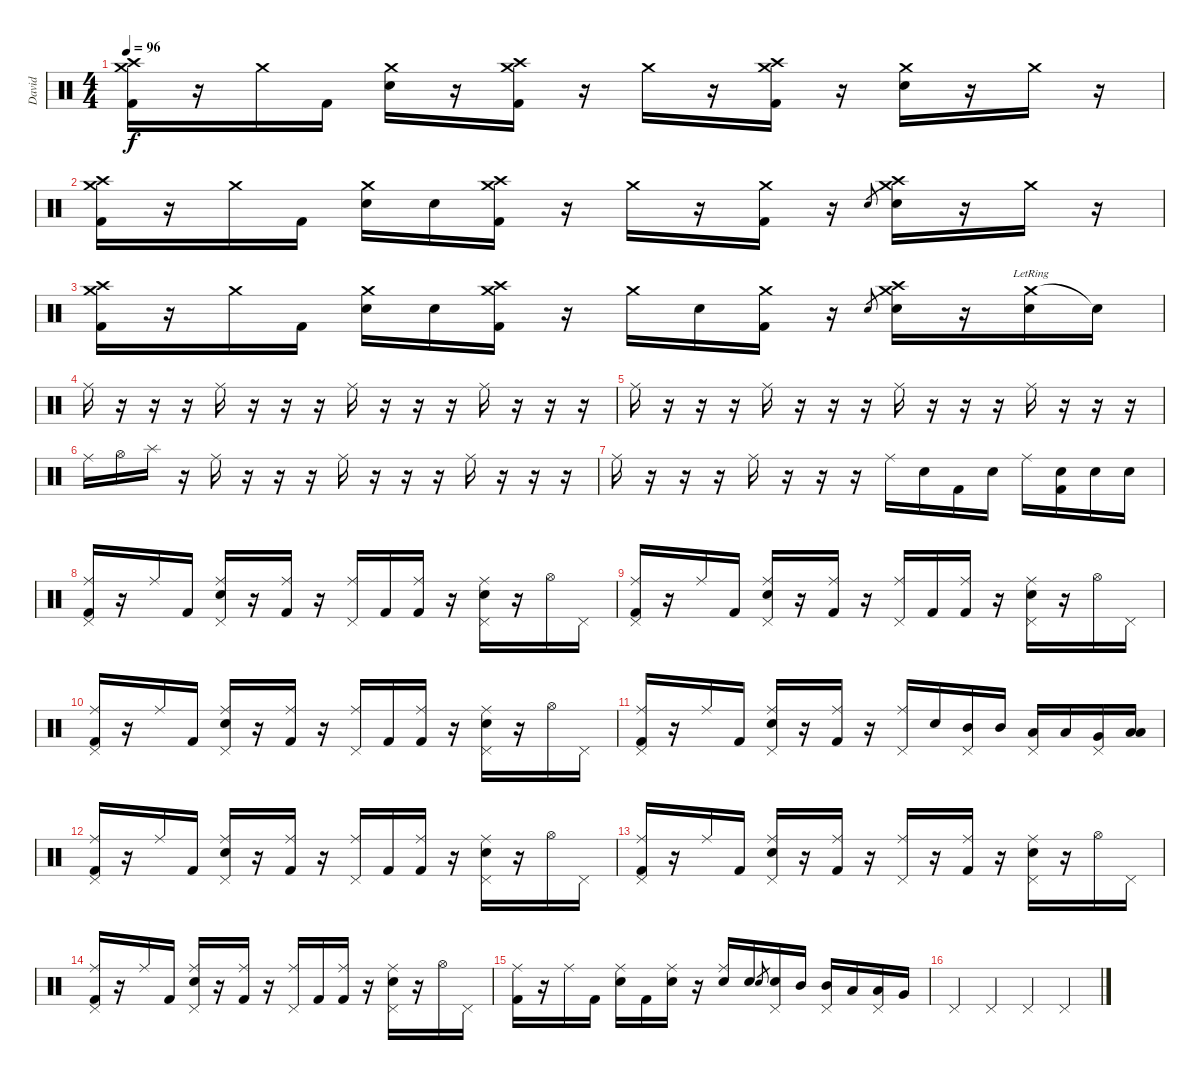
\track ("David" "David") {instrument percussion}
\staff {score}
\articulation defaults
\ts (4 4)
\tempo 96
\clef neutral
\ks c
("Crash high (hit)" "Crash medium (hit)" "Kick (hit) 2").16{dy f} r.16 "Crash medium (hit)".16 "Kick (hit) 2".16 ("Crash medium (hit)" "Electric Snare (hit)").16 r.16 ("Crash high (hit)" "Crash medium (hit)" "Kick (hit) 2").16 r.16 "Crash medium (hit)".16 r.16 ("Crash high (hit)" "Crash medium (hit)" "Kick (hit) 2").16 r.16 ("Crash medium (hit)" "Electric Snare (hit)").16 r.16 "Crash medium (hit)".16 r.16 |
("Crash high (hit)" "Crash medium (hit)" "Kick (hit) 2").16 r.16 "Crash medium (hit)".16 "Kick (hit) 2".16 ("Crash medium (hit)" "Electric Snare (hit)").16 "Electric Snare (hit)".16 ("Crash high (hit)" "Crash medium (hit)" "Kick (hit) 2").16 r.16 "Crash medium (hit)".16 r.16 ("Crash medium (hit)" "Kick (hit) 2").16 r.16 "Electric Snare (hit)".8{gr} ("Crash high (hit)" "Crash medium (hit)" "Electric Snare (hit)").16 r.16 "Crash medium (hit)".16 r.16 |
("Crash high (hit)" "Crash medium (hit)" "Kick (hit) 2").16 r.16 "Crash medium (hit)".16 "Kick (hit) 2".16 ("Crash medium (hit)" "Electric Snare (hit)").16 "Electric Snare (hit)".16 ("Crash high (hit)" "Crash medium (hit)" "Kick (hit) 2").16 r.16 "Crash medium (hit)".16 "Electric Snare (hit)".16 ("Crash medium (hit)" "Kick (hit) 2").16 r.16 "Electric Snare (hit)".8{gr} ("Crash high (hit)" "Crash medium (hit)" "Electric Snare (hit)").16 r.16 ("Crash medium (hit)"{lr} "Electric Snare (hit)").16 "Snare (hit)"{t}.16 |
"Ride (middle)".16 r.16 r.16 r.16 "Ride (middle)".16 r.16 r.16 r.16 "Ride (middle)".16 r.16 r.16 r.16 "Ride (middle)".16 r.16 r.16 r.16 |
"Ride (middle)".16 r.16 r.16 r.16 "Ride (middle)".16 r.16 r.16 r.16 "Ride (middle)".16 r.16 r.16 r.16 "Ride (middle)".16 r.16 r.16 r.16 |
"Ride (middle)".16 "Hi-Hat (open)".16 "Splash (hit)".16 r.16 "Ride (middle)".16 r.16 r.16 r.16 "Ride (middle)".16 r.16 r.16 r.16 "Ride (middle)".16 r.16 r.16 r.16 |
"Ride (middle)".16 r.16 r.16 r.16 "Ride (middle)".16 r.16 r.16 r.16 "Ride (middle)".16 "Electric Snare (hit)".16 "Kick (hit) 2".16 "Electric Snare (hit)".16 "Ride (middle)".16 ("Electric Snare (hit)" "Kick (hit) 2").16 "Electric Snare (hit)".16 "Electric Snare (hit)".16 |
("Ride (middle)" "Pedal Hi-Hat (hit)" "Kick (hit) 2").16 r.16 "Ride (middle)".16 "Kick (hit) 2".16 ("Ride (middle)" "Pedal Hi-Hat (hit)" "Electric Snare (hit)").16 r.16 ("Ride (middle)" "Kick (hit) 2").16 r.16 ("Ride (middle)" "Pedal Hi-Hat (hit)").16 "Kick (hit) 2".16 ("Ride (middle)" "Kick (hit) 2").16 r.16 ("Ride (middle)" "Pedal Hi-Hat (hit)" "Electric Snare (hit)").16 r.16 "Hi-Hat (open)".16 "Pedal Hi-Hat (hit)".16 |
("Ride (middle)" "Pedal Hi-Hat (hit)" "Kick (hit) 2").16 r.16 "Ride (middle)".16 "Kick (hit) 2".16 ("Ride (middle)" "Pedal Hi-Hat (hit)" "Electric Snare (hit)").16 r.16 ("Ride (middle)" "Kick (hit) 2").16 r.16 ("Ride (middle)" "Pedal Hi-Hat (hit)").16 "Kick (hit) 2".16 ("Ride (middle)" "Kick (hit) 2").16 r.16 ("Ride (middle)" "Pedal Hi-Hat (hit)" "Electric Snare (hit)").16 r.16 "Hi-Hat (open)".16 "Pedal Hi-Hat (hit)".16 |
("Ride (middle)" "Pedal Hi-Hat (hit)" "Kick (hit) 2").16 r.16 "Ride (middle)".16 "Kick (hit) 2".16 ("Ride (middle)" "Pedal Hi-Hat (hit)" "Electric Snare (hit)").16 r.16 ("Ride (middle)" "Kick (hit) 2").16 r.16 ("Ride (middle)" "Pedal Hi-Hat (hit)").16 "Kick (hit) 2".16 ("Ride (middle)" "Kick (hit) 2").16 r.16 ("Ride (middle)" "Pedal Hi-Hat (hit)" "Electric Snare (hit)").16 r.16 "Hi-Hat (open)".16 "Pedal Hi-Hat (hit)".16 |
("Ride (middle)" "Pedal Hi-Hat (hit)" "Kick (hit) 2").16 r.16 "Ride (middle)".16 "Kick (hit) 2".16 ("Ride (middle)" "Pedal Hi-Hat (hit)" "Electric Snare (hit)").16 r.16 ("Ride (middle)" "Kick (hit) 2").16 r.16 ("Ride (middle)" "Pedal Hi-Hat (hit)").16 "Electric Snare (hit)".16 ("Pedal Hi-Hat (hit)" "Mid Tom (hit)").16 "Mid Tom (hit)".16 ("Pedal Hi-Hat (hit)" "Low Tom (hit)").16 "Low Tom (hit)".16 ("Pedal Hi-Hat (hit)" "Very Low Tom (hit)").16 ("Low Floor Tom (hit)" "Low Floor Tom (hit)").16 |
("Ride (middle)" "Pedal Hi-Hat (hit)" "Kick (hit) 2").16 r.16 "Ride (middle)".16 "Kick (hit) 2".16 ("Ride (middle)" "Pedal Hi-Hat (hit)" "Electric Snare (hit)").16 r.16 ("Ride (middle)" "Kick (hit) 2").16 r.16 ("Ride (middle)" "Pedal Hi-Hat (hit)").16 "Kick (hit) 2".16 ("Ride (middle)" "Kick (hit) 2").16 r.16 ("Ride (middle)" "Pedal Hi-Hat (hit)" "Electric Snare (hit)").16 r.16 "Hi-Hat (open)".16 "Pedal Hi-Hat (hit)".16 |
("Ride (middle)" "Pedal Hi-Hat (hit)" "Kick (hit) 2").16 r.16 "Ride (middle)".16 "Kick (hit) 2".16 ("Ride (middle)" "Pedal Hi-Hat (hit)" "Electric Snare (hit)").16 r.16 ("Ride (middle)" "Kick (hit) 2").16 r.16 ("Ride (middle)" "Pedal Hi-Hat (hit)").16 r.16 ("Ride (middle)" "Kick (hit) 2").16 r.16 ("Ride (middle)" "Pedal Hi-Hat (hit)" "Electric Snare (hit)").16 r.16 "Hi-Hat (open)".16 "Pedal Hi-Hat (hit)".16 |
("Ride (middle)" "Pedal Hi-Hat (hit)" "Kick (hit) 2").16 r.16 "Ride (middle)".16 "Kick (hit) 2".16 ("Ride (middle)" "Pedal Hi-Hat (hit)" "Electric Snare (hit)").16 r.16 ("Ride (middle)" "Kick (hit) 2").16 r.16 ("Ride (middle)" "Pedal Hi-Hat (hit)").16 "Kick (hit) 2".16 ("Ride (middle)" "Kick (hit) 2").16 r.16 ("Ride (middle)" "Pedal Hi-Hat (hit)" "Electric Snare (hit)").16 r.16 "Hi-Hat (open)".16 "Pedal Hi-Hat (hit)".16 |
("Ride (middle)" "Kick (hit) 2").16 r.16 "Ride (middle)".16 "Kick (hit) 2".16 ("Ride (middle)" "Electric Snare (hit)").16 "Kick (hit) 2".16 ("Ride (middle)" "Electric Snare (hit)").16 r.16 ("Ride (middle)" "Electric Snare (hit)").16 "Electric Snare (hit)".16 "Electric Snare (hit)".8{gr} ("Pedal Hi-Hat (hit)" "Electric Snare (hit)").16 "Mid Tom (hit)".16 ("Pedal Hi-Hat (hit)" "Mid Tom (hit)").16 "Low Tom (hit)".16 ("Pedal Hi-Hat (hit)" "Low Tom (hit)").16 "Very Low Tom (hit)".16 |
"Pedal Hi-Hat (hit)".4 "Pedal Hi-Hat (hit)".4 "Pedal Hi-Hat (hit)".4 "Pedal Hi-Hat (hit)".4
